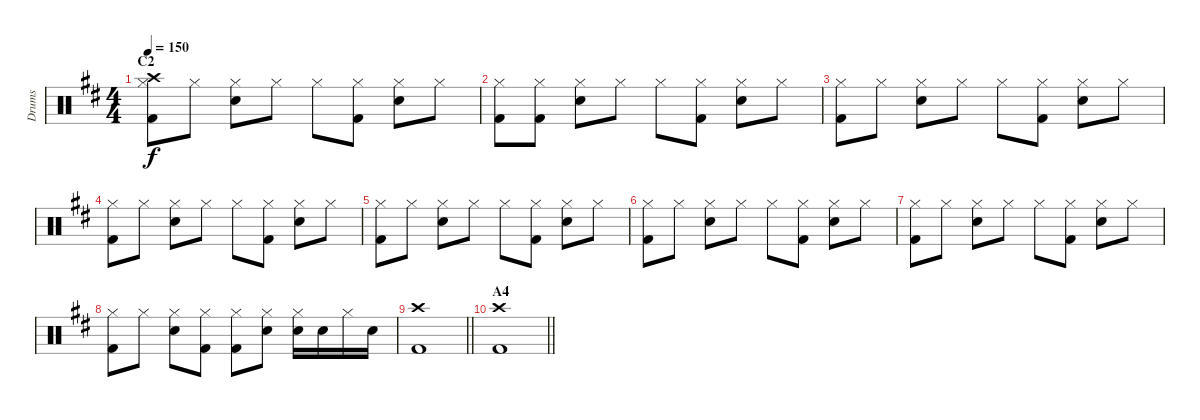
\track ("Drums" "Drums") {instrument percussion}
\staff {score}
\articulation defaults
\ts (4 4)
\section ("" "C2")
\tempo 150
\clef neutral
\ks d
("Hi-Hat (closed)" "Crash high (hit)" "Kick (hit) 2").8{dy f} "Hi-Hat (closed)".8 ("Hi-Hat (closed)" "Electric Snare (hit)").8 "Hi-Hat (closed)".8 "Hi-Hat (closed)".8 ("Hi-Hat (closed)" "Kick (hit) 2").8 ("Hi-Hat (closed)" "Electric Snare (hit)").8 "Hi-Hat (closed)".8 |
("Hi-Hat (closed)" "Kick (hit) 2").8 ("Hi-Hat (closed)" "Kick (hit) 2").8 ("Hi-Hat (closed)" "Electric Snare (hit)").8 "Hi-Hat (closed)".8 "Hi-Hat (closed)".8 ("Hi-Hat (closed)" "Kick (hit) 2").8 ("Hi-Hat (closed)" "Electric Snare (hit)").8 "Hi-Hat (closed)".8 |
("Hi-Hat (closed)" "Kick (hit) 2").8 "Hi-Hat (closed)".8 ("Hi-Hat (closed)" "Electric Snare (hit)").8 "Hi-Hat (closed)".8 "Hi-Hat (closed)".8 ("Hi-Hat (closed)" "Kick (hit) 2").8 ("Hi-Hat (closed)" "Electric Snare (hit)").8 "Hi-Hat (closed)".8 |
("Hi-Hat (closed)" "Kick (hit) 2").8 "Hi-Hat (closed)".8 ("Hi-Hat (closed)" "Electric Snare (hit)").8 "Hi-Hat (closed)".8 "Hi-Hat (closed)".8 ("Hi-Hat (closed)" "Kick (hit) 2").8 ("Hi-Hat (closed)" "Electric Snare (hit)").8 "Hi-Hat (closed)".8 |
("Hi-Hat (closed)" "Kick (hit) 2").8 "Hi-Hat (closed)".8 ("Hi-Hat (closed)" "Electric Snare (hit)").8 "Hi-Hat (closed)".8 "Hi-Hat (closed)".8 ("Hi-Hat (closed)" "Kick (hit) 2").8 ("Hi-Hat (closed)" "Electric Snare (hit)").8 "Hi-Hat (closed)".8 |
("Hi-Hat (closed)" "Kick (hit) 2").8 "Hi-Hat (closed)".8 ("Hi-Hat (closed)" "Electric Snare (hit)").8 "Hi-Hat (closed)".8 "Hi-Hat (closed)".8 ("Hi-Hat (closed)" "Kick (hit) 2").8 ("Hi-Hat (closed)" "Electric Snare (hit)").8 "Hi-Hat (closed)".8 |
("Hi-Hat (closed)" "Kick (hit) 2").8 "Hi-Hat (closed)".8 ("Hi-Hat (closed)" "Electric Snare (hit)").8 "Hi-Hat (closed)".8 "Hi-Hat (closed)".8 ("Hi-Hat (closed)" "Kick (hit) 2").8 ("Hi-Hat (closed)" "Electric Snare (hit)").8 "Hi-Hat (closed)".8 |
("Hi-Hat (closed)" "Kick (hit) 2").8 "Hi-Hat (closed)".8 ("Hi-Hat (closed)" "Electric Snare (hit)").8 ("Hi-Hat (closed)" "Kick (hit) 2").8 ("Hi-Hat (closed)" "Kick (hit) 2").8 ("Hi-Hat (closed)" "Electric Snare (hit)").8 ("Hi-Hat (closed)" "Electric Snare (hit)").16 "Electric Snare (hit)".16 "Hi-Hat (closed)".16 "Electric Snare (hit)".16 |
\barLineRight lightlight
("Crash high (hit)" "Kick (hit) 2").1 |
\section ("" "A4")
\barLineRight lightlight
("Crash high (hit)" "Kick (hit) 2").1
